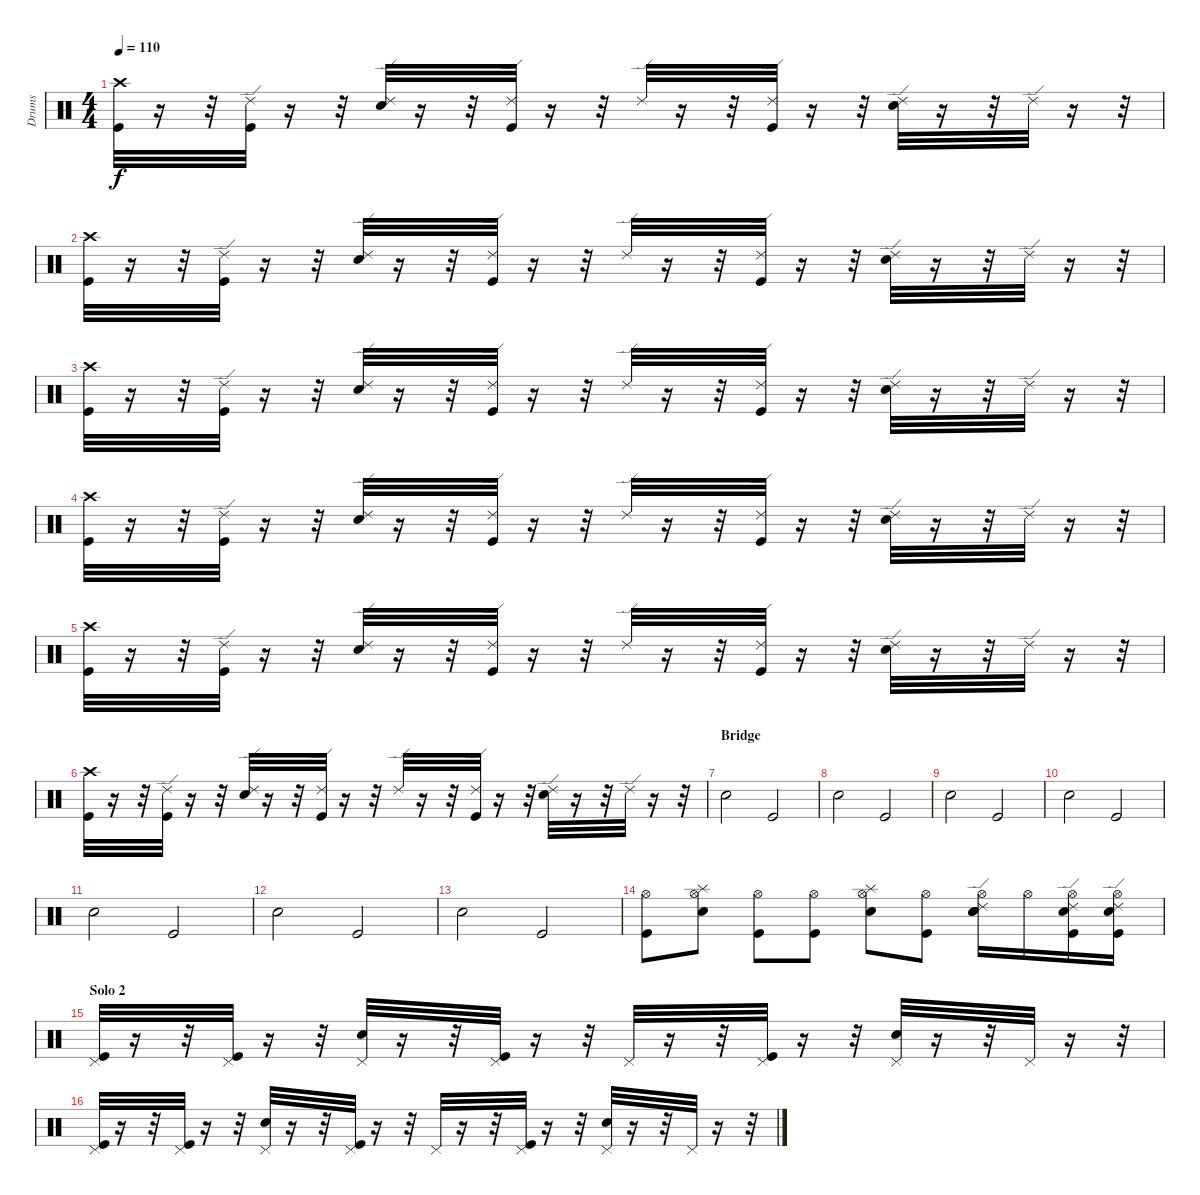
\track ("Drums" "Drums") {instrument percussion}
\staff {score}
\articulation defaults
\ts (4 4)
\tempo 110
\clef neutral
\ks c
("Kick (hit)" "Crash high (hit)").32{dy f} r.16 r.32 ("Ride (edge) 2" "Kick (hit)").32 r.16 r.32 ("Ride (edge) 2" "Electric Snare (hit)").32 r.16 r.32 ("Ride (edge) 2" "Kick (hit)").32 r.16 r.32 "Ride (edge) 2".32 r.16 r.32 ("Ride (edge) 2" "Kick (hit)").32 r.16 r.32 ("Ride (edge) 2" "Electric Snare (hit)").32 r.16 r.32 "Ride (edge) 2".32 r.16 r.32 |
("Kick (hit)" "Crash high (hit)").32 r.16 r.32 ("Ride (edge) 2" "Kick (hit)").32 r.16 r.32 ("Ride (edge) 2" "Electric Snare (hit)").32 r.16 r.32 ("Ride (edge) 2" "Kick (hit)").32 r.16 r.32 "Ride (edge) 2".32 r.16 r.32 ("Ride (edge) 2" "Kick (hit)").32 r.16 r.32 ("Ride (edge) 2" "Electric Snare (hit)").32 r.16 r.32 "Ride (edge) 2".32 r.16 r.32 |
("Kick (hit)" "Crash high (hit)").32 r.16 r.32 ("Ride (edge) 2" "Kick (hit)").32 r.16 r.32 ("Ride (edge) 2" "Electric Snare (hit)").32 r.16 r.32 ("Ride (edge) 2" "Kick (hit)").32 r.16 r.32 "Ride (edge) 2".32 r.16 r.32 ("Ride (edge) 2" "Kick (hit)").32 r.16 r.32 ("Ride (edge) 2" "Electric Snare (hit)").32 r.16 r.32 "Ride (edge) 2".32 r.16 r.32 |
("Kick (hit)" "Crash high (hit)").32 r.16 r.32 ("Ride (edge) 2" "Kick (hit)").32 r.16 r.32 ("Ride (edge) 2" "Electric Snare (hit)").32 r.16 r.32 ("Ride (edge) 2" "Kick (hit)").32 r.16 r.32 "Ride (edge) 2".32 r.16 r.32 ("Ride (edge) 2" "Kick (hit)").32 r.16 r.32 ("Ride (edge) 2" "Electric Snare (hit)").32 r.16 r.32 "Ride (edge) 2".32 r.16 r.32 |
("Kick (hit)" "Crash high (hit)").32 r.16 r.32 ("Ride (edge) 2" "Kick (hit)").32 r.16 r.32 ("Ride (edge) 2" "Electric Snare (hit)").32 r.16 r.32 ("Ride (edge) 2" "Kick (hit)").32 r.16 r.32 "Ride (edge) 2".32 r.16 r.32 ("Ride (edge) 2" "Kick (hit)").32 r.16 r.32 ("Ride (edge) 2" "Electric Snare (hit)").32 r.16 r.32 "Ride (edge) 2".32 r.16 r.32 |
("Kick (hit)" "Crash high (hit)").32 r.16 r.32 ("Ride (edge) 2" "Kick (hit)").32 r.16 r.32 ("Ride (edge) 2" "Electric Snare (hit)").32 r.16 r.32 ("Ride (edge) 2" "Kick (hit)").32 r.16 r.32 "Ride (edge) 2".32 r.16 r.32 ("Ride (edge) 2" "Kick (hit)").32 r.16 r.32 ("Ride (edge) 2" "Electric Snare (hit)").32 r.16 r.32 "Ride (edge) 2".32 r.16 r.32 |
\section ("" "Bridge")
"Snare (hit) 2".2 "Kick (hit)".2 |
"Snare (hit) 2".2 "Kick (hit)".2 |
"Snare (hit) 2".2 "Kick (hit)".2 |
"Snare (hit) 2".2 "Kick (hit)".2 |
"Snare (hit) 2".2 "Kick (hit)".2 |
"Snare (hit) 2".2 "Kick (hit)".2 |
"Snare (hit) 2".2 "Kick (hit)".2 |
("Kick (hit)" "Hi-Hat (open)").8 ("Splash (hit)" "Snare (hit) 2" "Hi-Hat (open)").8 ("Kick (hit)" "Hi-Hat (open)").8 ("Kick (hit)" "Hi-Hat (open)").8 ("Splash (hit)" "Snare (hit) 2" "Hi-Hat (open)").8 ("Kick (hit)" "Hi-Hat (open)").8 ("Ride (edge) 2" "Electric Snare (hit)" "Snare (hit) 2" "Hi-Hat (open)").16 "Hi-Hat (open)".16 ("Ride (edge) 2" "Kick (hit)" "Snare (hit) 2" "Hi-Hat (open)").16 ("Ride (edge) 2" "Kick (hit)" "Snare (hit) 2" "Hi-Hat (open)").16 |
\section ("" "Solo 2")
("Pedal Hi-Hat (hit)" "Kick (hit)").32 r.16 r.32 ("Pedal Hi-Hat (hit)" "Kick (hit)").32 r.16 r.32 ("Pedal Hi-Hat (hit)" "Electric Snare (hit)").32 r.16 r.32 ("Pedal Hi-Hat (hit)" "Kick (hit)").32 r.16 r.32 "Pedal Hi-Hat (hit)".32 r.16 r.32 ("Pedal Hi-Hat (hit)" "Kick (hit)").32 r.16 r.32 ("Pedal Hi-Hat (hit)" "Electric Snare (hit)").32 r.16 r.32 "Pedal Hi-Hat (hit)".32 r.16 r.32 |
("Pedal Hi-Hat (hit)" "Kick (hit)").32 r.16 r.32 ("Pedal Hi-Hat (hit)" "Kick (hit)").32 r.16 r.32 ("Pedal Hi-Hat (hit)" "Electric Snare (hit)").32 r.16 r.32 ("Pedal Hi-Hat (hit)" "Kick (hit)").32 r.16 r.32 "Pedal Hi-Hat (hit)".32 r.16 r.32 ("Pedal Hi-Hat (hit)" "Kick (hit)").32 r.16 r.32 ("Pedal Hi-Hat (hit)" "Electric Snare (hit)").32 r.16 r.32 "Pedal Hi-Hat (hit)".32 r.16 r.32
